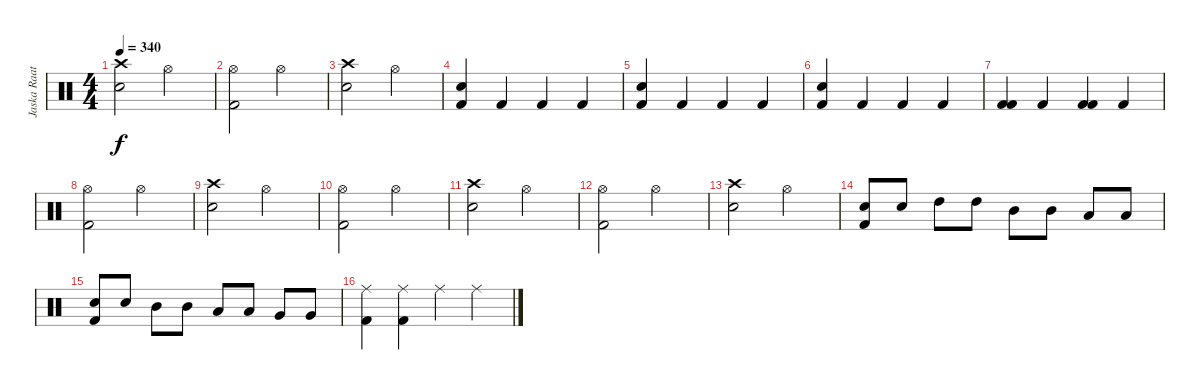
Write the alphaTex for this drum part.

\track ("Jaska Raatkinen" "Jaska Raat") {instrument percussion}
\staff {score}
\articulation defaults
\ts (4 4)
\tempo 340
\clef neutral
\ks c
("Crash high (hit)" "Snare (hit) 2").2{dy f} "Hi-Hat (open)".2 |
("Hi-Hat (open)" "Kick (hit) 2").2 "Hi-Hat (open)".2 |
("Crash high (hit)" "Snare (hit) 2").2 "Hi-Hat (open)".2 |
("Snare (hit) 2" "Kick (hit) 2").4 "Kick (hit) 2".4 "Kick (hit) 2".4 "Kick (hit) 2".4 |
("Snare (hit) 2" "Kick (hit) 2").4 "Kick (hit) 2".4 "Kick (hit) 2".4 "Kick (hit) 2".4 |
("Snare (hit) 2" "Kick (hit) 2").4 "Kick (hit) 2".4 "Kick (hit) 2".4 "Kick (hit) 2".4 |
("Kick (hit) 2" "Kick (hit) 2").4 "Kick (hit) 2".4 ("Kick (hit) 2" "Kick (hit) 2").4 "Kick (hit) 2".4 |
("Hi-Hat (open)" "Kick (hit) 2").2 "Hi-Hat (open)".2 |
("Crash high (hit)" "Snare (hit) 2").2 "Hi-Hat (open)".2 |
("Hi-Hat (open)" "Kick (hit) 2").2 "Hi-Hat (open)".2 |
("Crash high (hit)" "Snare (hit) 2").2 "Hi-Hat (open)".2 |
("Hi-Hat (open)" "Kick (hit) 2").2 "Hi-Hat (open)".2 |
("Crash high (hit)" "Snare (hit) 2").2 "Hi-Hat (open)".2 |
("Snare (hit) 2" "Kick (hit) 2").8 "Snare (hit) 2".8 "High Tom (hit)".8 "High Tom (hit)".8 "Mid Tom (hit)".8 "Mid Tom (hit)".8 "Low Tom (hit)".8 "Low Tom (hit)".8 |
("Snare (hit) 2" "Kick (hit) 2").8 "Snare (hit) 2".8 "Mid Tom (hit)".8 "Mid Tom (hit)".8 "Low Tom (hit)".8 "Low Tom (hit)".8 "Very Low Tom (hit)".8 "Very Low Tom (hit)".8 |
("Ride (middle)" "Kick (hit) 2").4 ("Ride (middle)" "Kick (hit) 2").4 "Ride (middle)".4 "Ride (middle)".4
